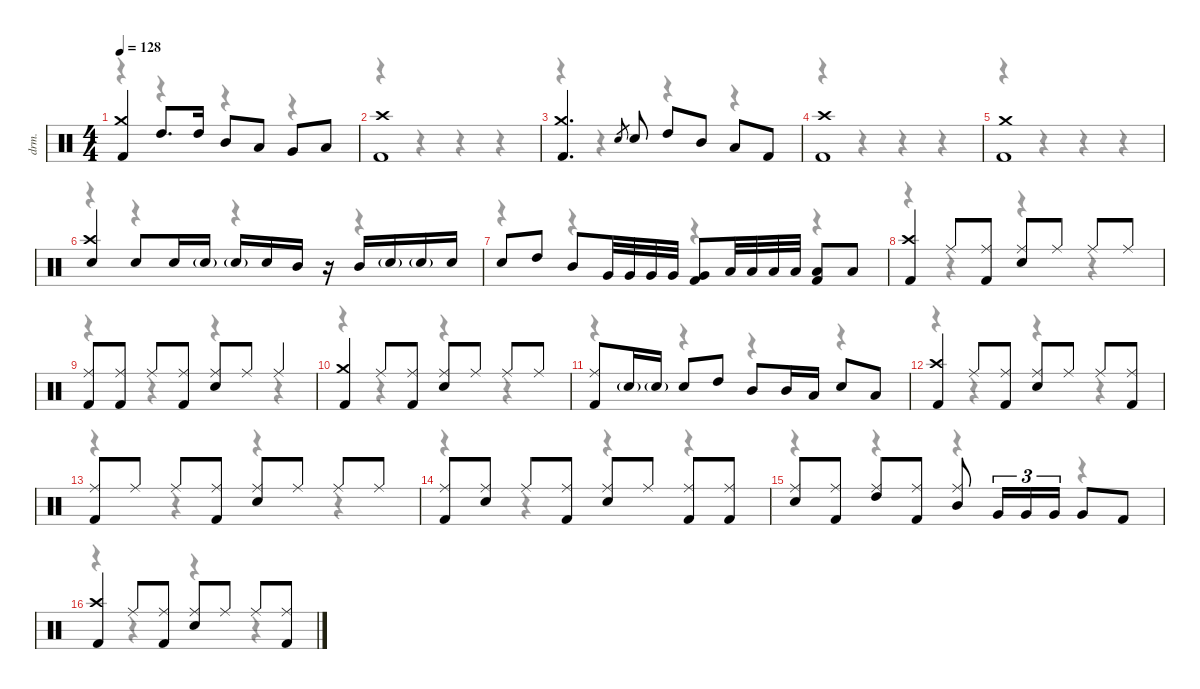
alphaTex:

\defaultSystemsLayout 4
\hideDynamics
\bracketExtendMode nobrackets
\track ("Drums" "drm.") {instrument percussion}
\staff {score}
\articulation defaults
\voice
\ts (4 4)
\tempo 128
\clef neutral
\ks c
("Kick (hit) 2" "Crash medium (hit)").4{dy fff} "High Tom (hit)".8{d} "High Tom (hit)".16 "Mid Tom (hit)".8 "Low Tom (hit)".8 "Very Low Tom (hit)".8 "Low Floor Tom (hit)".8 |
("Kick (hit) 2" "Crash high (hit)").1 |
("Kick (hit) 2" "Crash medium (hit)").4{d} "Electric Snare (hit)".8{gr dy ff} "Snare (hit) 2".8{dy fff} "High Tom (hit)".8 "Mid Tom (hit)".8 "Low Tom (hit)".8 "Kick (hit) 2".8 |
("Kick (hit) 2" "Crash high (hit)").1 |
("Kick (hit) 2" "Crash medium (hit)").1 |
("Snare (hit) 2" "Crash high (hit)").4 "Snare (hit) 2".8 "Snare (hit) 2".16 "Snare (hit) 2"{g}.16{dy mf} "Snare (hit) 2"{g}.16 "Snare (hit) 2".16{dy fff} "Mid Tom (hit)".16 r.16 "Mid Tom (hit)".16 "Snare (hit) 2"{g}.16{dy mf} "Snare (hit) 2"{g}.16 "Snare (hit) 2".16{dy fff} |
"Snare (hit) 2".8 "High Tom (hit)".8 "Mid Tom (hit)".8 "Very Low Tom (hit)".32{dy mp} "Very Low Tom (hit)".32{dy mf} "Very Low Tom (hit)".32{dy f} "Very Low Tom (hit)".32{dy ff} ("Kick (hit) 2" "Very Low Tom (hit)").8{dy fff} "Low Floor Tom (hit)".32{dy mp} "Low Floor Tom (hit)".32{dy mf} "Low Floor Tom (hit)".32{dy f} "Low Floor Tom (hit)".32{dy ff} ("Kick (hit) 2" "Low Floor Tom (hit)").8{dy fff} "Low Floor Tom (hit)".8 |
("Kick (hit) 2" "Crash high (hit)").4 "Ride (middle)".8{dy mp} ("Kick (hit) 2" "Ride (middle)").8{dy fff} ("Snare (hit) 2" "Ride (middle)").8 "Ride (middle)".8{dy mp} "Ride (middle)".8 "Ride (middle)".8 |
("Kick (hit) 2" "Ride (middle)").8{dy fff} ("Kick (hit) 2" "Ride (middle)").8 "Ride (middle)".8{dy mp} ("Kick (hit) 2" "Ride (middle)").8{dy fff} ("Snare (hit) 2" "Ride (middle)").8 "Ride (middle)".8{dy mp} "Ride (middle)".4 |
("Kick (hit) 2" "Crash medium (hit)").4{dy fff} "Ride (middle)".8{dy mp} ("Kick (hit) 2" "Ride (middle)").8{dy fff} ("Snare (hit) 2" "Ride (middle)").8 "Ride (middle)".8{dy mp} "Ride (middle)".8 "Ride (middle)".8 |
("Kick (hit) 2" "Ride (middle)").8{dy fff} "Snare (hit) 2"{g}.16{dy mf} "Snare (hit) 2"{g}.16 "Snare (hit) 2".8{dy fff} "High Tom (hit)".8 "Mid Tom (hit)".8 "Mid Tom (hit)".16 "Low Tom (hit)".16 "Snare (hit) 2".8 "Low Tom (hit)".8 |
("Kick (hit) 2" "Crash high (hit)").4 "Ride (middle)".8{dy mp} ("Kick (hit) 2" "Ride (middle)").8{dy fff} ("Snare (hit) 2" "Ride (middle)").8 "Ride (middle)".8{dy mp} "Ride (middle)".8 ("Kick (hit) 2" "Ride (middle)").8{dy fff} |
("Kick (hit) 2" "Ride (middle)").8 "Ride (middle)".8{dy mp} "Ride (middle)".8 ("Kick (hit) 2" "Ride (middle)").8{dy fff} ("Snare (hit) 2" "Ride (middle)").8 "Ride (middle)".8{dy mp} "Ride (middle)".8 "Ride (middle)".8 |
("Kick (hit) 2" "Ride (middle)").8{dy fff} ("Snare (hit) 2" "Ride (middle)").8 "Ride (middle)".8{dy mp} ("Kick (hit) 2" "Ride (middle)").8{dy fff} ("Snare (hit) 2" "Ride (middle)").8 "Ride (middle)".8{dy mp} ("Kick (hit) 2" "Ride (middle)").8{dy fff} ("Kick (hit) 2" "Ride (middle)").8 |
("Snare (hit) 2" "Ride (middle)").8 ("Kick (hit) 2" "Ride (middle)").8 ("High Tom (hit)" "Ride (middle)").8 ("Kick (hit) 2" "Ride (middle)").8 ("Mid Tom (hit)" "Ride (middle)").8 "Very Low Tom (hit)".16{tu (3 2) dy mp} "Very Low Tom (hit)".16{tu (3 2) dy mf} "Very Low Tom (hit)".16{tu (3 2) dy ff} "Very Low Tom (hit)".8{dy fff} "Kick (hit) 2".8 |
("Kick (hit) 2" "Crash high (hit)").4 "Ride (middle)".8{dy mp} ("Kick (hit) 2" "Ride (middle)").8{dy fff} ("Snare (hit) 2" "Ride (middle)").8 "Ride (middle)".8{dy mp} "Ride (middle)".8 ("Kick (hit) 2" "Ride (middle)").8{dy fff}
\voice
\clef neutral
\ottava regular
\simile none
\ks c
r.4{dy mf} r.4 r.4 r.4 |
r.4 r.4 r.4 r.4 |
r.4 r.4 r.4 r.4 |
r.4 r.4 r.4 r.4 |
r.4 r.4 r.4 r.4 |
r.4 r.4 r.4 r.4 |
r.4 r.4 r.4 r.4 |
r.4 r.4 r.4 r.4 |
r.4 r.4 r.4 r.4 |
r.4 r.4 r.4 r.4 |
r.4 r.4 r.4 r.4 |
r.4 r.4 r.4 r.4 |
r.4 r.4 r.4 r.4 |
r.4 r.4 r.4 r.4 |
r.4 r.4 r.4 r.4 |
r.4 r.4 r.4 r.4
